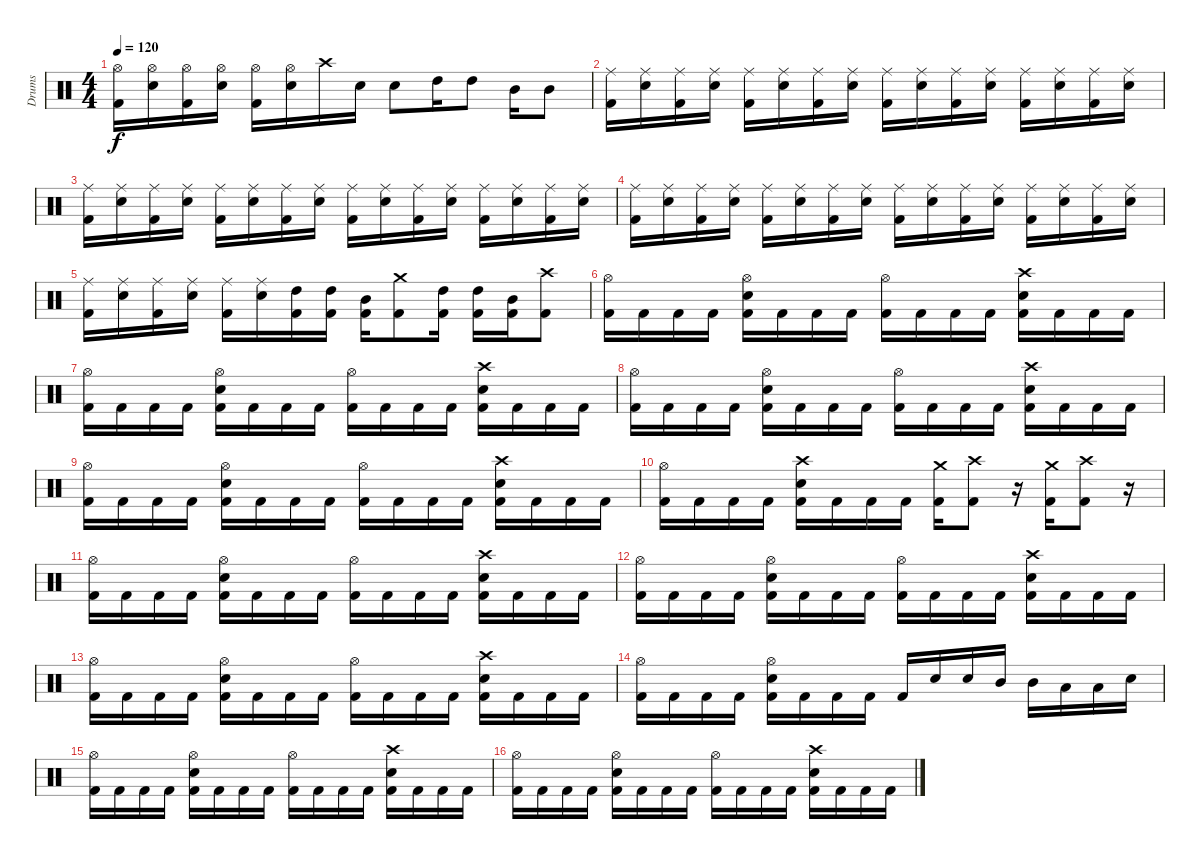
\track ("Drums" "Drums") {instrument percussion}
\staff {score}
\articulation defaults
\ts (4 4)
\tempo 120
\clef neutral
\ks c
("Hi-Hat (open)" "Kick (hit) 2").16{dy f} ("Hi-Hat (open)" "Electric Snare (hit)").16 ("Hi-Hat (open)" "Kick (hit) 2").16 ("Hi-Hat (open)" "Electric Snare (hit)").16 ("Hi-Hat (open)" "Kick (hit) 2").16 ("Hi-Hat (open)" "Electric Snare (hit)").16 "Crash high (hit)".16 "Electric Snare (hit)".16 "Electric Snare (hit)".8 "High Tom (hit)".16 "High Tom (hit)".8 "Mid Tom (hit)".16 "Mid Tom (hit)".8 |
("Ride (middle)" "Kick (hit) 2").16 ("Ride (middle)" "Electric Snare (hit)").16 ("Ride (middle)" "Kick (hit) 2").16 ("Ride (middle)" "Electric Snare (hit)").16 ("Ride (middle)" "Kick (hit) 2").16 ("Ride (middle)" "Electric Snare (hit)").16 ("Ride (middle)" "Kick (hit) 2").16 ("Ride (middle)" "Electric Snare (hit)").16 ("Ride (middle)" "Kick (hit) 2").16 ("Ride (middle)" "Electric Snare (hit)").16 ("Ride (middle)" "Kick (hit) 2").16 ("Ride (middle)" "Electric Snare (hit)").16 ("Ride (middle)" "Kick (hit) 2").16 ("Ride (middle)" "Electric Snare (hit)").16 ("Ride (middle)" "Kick (hit) 2").16 ("Ride (middle)" "Electric Snare (hit)").16 |
("Ride (middle)" "Kick (hit) 2").16 ("Ride (middle)" "Electric Snare (hit)").16 ("Ride (middle)" "Kick (hit) 2").16 ("Ride (middle)" "Electric Snare (hit)").16 ("Ride (middle)" "Kick (hit) 2").16 ("Ride (middle)" "Electric Snare (hit)").16 ("Ride (middle)" "Kick (hit) 2").16 ("Ride (middle)" "Electric Snare (hit)").16 ("Ride (middle)" "Kick (hit) 2").16 ("Ride (middle)" "Electric Snare (hit)").16 ("Ride (middle)" "Kick (hit) 2").16 ("Ride (middle)" "Electric Snare (hit)").16 ("Ride (middle)" "Kick (hit) 2").16 ("Ride (middle)" "Electric Snare (hit)").16 ("Ride (middle)" "Kick (hit) 2").16 ("Ride (middle)" "Electric Snare (hit)").16 |
("Ride (middle)" "Kick (hit) 2").16 ("Ride (middle)" "Electric Snare (hit)").16 ("Ride (middle)" "Kick (hit) 2").16 ("Ride (middle)" "Electric Snare (hit)").16 ("Ride (middle)" "Kick (hit) 2").16 ("Ride (middle)" "Electric Snare (hit)").16 ("Ride (middle)" "Kick (hit) 2").16 ("Ride (middle)" "Electric Snare (hit)").16 ("Ride (middle)" "Kick (hit) 2").16 ("Ride (middle)" "Electric Snare (hit)").16 ("Ride (middle)" "Kick (hit) 2").16 ("Ride (middle)" "Electric Snare (hit)").16 ("Ride (middle)" "Kick (hit) 2").16 ("Ride (middle)" "Electric Snare (hit)").16 ("Ride (middle)" "Kick (hit) 2").16 ("Ride (middle)" "Electric Snare (hit)").16 |
("Ride (middle)" "Kick (hit) 2").16 ("Ride (middle)" "Electric Snare (hit)").16 ("Ride (middle)" "Kick (hit) 2").16 ("Ride (middle)" "Electric Snare (hit)").16 ("Ride (middle)" "Kick (hit) 2").16 ("Ride (middle)" "Electric Snare (hit)").16 ("High Tom (hit)" "Kick (hit) 2").16 ("High Tom (hit)" "Kick (hit) 2").16 ("Mid Tom (hit)" "Kick (hit) 2").16 ("Crash medium (hit)" "Kick (hit) 2").8 ("High Tom (hit)" "Kick (hit) 2").16 ("High Tom (hit)" "Kick (hit) 2").16 ("Mid Tom (hit)" "Kick (hit) 2").16 ("Crash high (hit)" "Kick (hit) 2").8 |
("Hi-Hat (open)" "Kick (hit) 2").16 "Kick (hit) 2".16 "Kick (hit) 2".16 "Kick (hit) 2".16 ("Hi-Hat (open)" "Electric Snare (hit)" "Kick (hit) 2").16 "Kick (hit) 2".16 "Kick (hit) 2".16 "Kick (hit) 2".16 ("Hi-Hat (open)" "Kick (hit) 2").16 "Kick (hit) 2".16 "Kick (hit) 2".16 "Kick (hit) 2".16 ("Crash high (hit)" "Electric Snare (hit)" "Kick (hit) 2").16 "Kick (hit) 2".16 "Kick (hit) 2".16 "Kick (hit) 2".16 |
("Hi-Hat (open)" "Kick (hit) 2").16 "Kick (hit) 2".16 "Kick (hit) 2".16 "Kick (hit) 2".16 ("Hi-Hat (open)" "Electric Snare (hit)" "Kick (hit) 2").16 "Kick (hit) 2".16 "Kick (hit) 2".16 "Kick (hit) 2".16 ("Hi-Hat (open)" "Kick (hit) 2").16 "Kick (hit) 2".16 "Kick (hit) 2".16 "Kick (hit) 2".16 ("Crash high (hit)" "Electric Snare (hit)" "Kick (hit) 2").16 "Kick (hit) 2".16 "Kick (hit) 2".16 "Kick (hit) 2".16 |
("Hi-Hat (open)" "Kick (hit) 2").16 "Kick (hit) 2".16 "Kick (hit) 2".16 "Kick (hit) 2".16 ("Hi-Hat (open)" "Electric Snare (hit)" "Kick (hit) 2").16 "Kick (hit) 2".16 "Kick (hit) 2".16 "Kick (hit) 2".16 ("Hi-Hat (open)" "Kick (hit) 2").16 "Kick (hit) 2".16 "Kick (hit) 2".16 "Kick (hit) 2".16 ("Crash high (hit)" "Electric Snare (hit)" "Kick (hit) 2").16 "Kick (hit) 2".16 "Kick (hit) 2".16 "Kick (hit) 2".16 |
("Hi-Hat (open)" "Kick (hit) 2").16 "Kick (hit) 2".16 "Kick (hit) 2".16 "Kick (hit) 2".16 ("Hi-Hat (open)" "Electric Snare (hit)" "Kick (hit) 2").16 "Kick (hit) 2".16 "Kick (hit) 2".16 "Kick (hit) 2".16 ("Hi-Hat (open)" "Kick (hit) 2").16 "Kick (hit) 2".16 "Kick (hit) 2".16 "Kick (hit) 2".16 ("Crash high (hit)" "Electric Snare (hit)" "Kick (hit) 2").16 "Kick (hit) 2".16 "Kick (hit) 2".16 "Kick (hit) 2".16 |
("Hi-Hat (open)" "Kick (hit) 2").16 "Kick (hit) 2".16 "Kick (hit) 2".16 "Kick (hit) 2".16 ("Crash high (hit)" "Electric Snare (hit)" "Kick (hit) 2").16 "Kick (hit) 2".16 "Kick (hit) 2".16 "Kick (hit) 2".16 ("Crash medium (hit)" "Kick (hit) 2").16 ("Crash high (hit)" "Kick (hit) 2").8 r.16 ("Crash medium (hit)" "Kick (hit) 2").16 ("Crash high (hit)" "Kick (hit) 2").8 r.16 |
("Hi-Hat (open)" "Kick (hit) 2").16 "Kick (hit) 2".16 "Kick (hit) 2".16 "Kick (hit) 2".16 ("Hi-Hat (open)" "Electric Snare (hit)" "Kick (hit) 2").16 "Kick (hit) 2".16 "Kick (hit) 2".16 "Kick (hit) 2".16 ("Hi-Hat (open)" "Kick (hit) 2").16 "Kick (hit) 2".16 "Kick (hit) 2".16 "Kick (hit) 2".16 ("Crash high (hit)" "Electric Snare (hit)" "Kick (hit) 2").16 "Kick (hit) 2".16 "Kick (hit) 2".16 "Kick (hit) 2".16 |
("Hi-Hat (open)" "Kick (hit) 2").16 "Kick (hit) 2".16 "Kick (hit) 2".16 "Kick (hit) 2".16 ("Hi-Hat (open)" "Electric Snare (hit)" "Kick (hit) 2").16 "Kick (hit) 2".16 "Kick (hit) 2".16 "Kick (hit) 2".16 ("Hi-Hat (open)" "Kick (hit) 2").16 "Kick (hit) 2".16 "Kick (hit) 2".16 "Kick (hit) 2".16 ("Crash high (hit)" "Electric Snare (hit)" "Kick (hit) 2").16 "Kick (hit) 2".16 "Kick (hit) 2".16 "Kick (hit) 2".16 |
("Hi-Hat (open)" "Kick (hit) 2").16 "Kick (hit) 2".16 "Kick (hit) 2".16 "Kick (hit) 2".16 ("Hi-Hat (open)" "Electric Snare (hit)" "Kick (hit) 2").16 "Kick (hit) 2".16 "Kick (hit) 2".16 "Kick (hit) 2".16 ("Hi-Hat (open)" "Kick (hit) 2").16 "Kick (hit) 2".16 "Kick (hit) 2".16 "Kick (hit) 2".16 ("Crash high (hit)" "Electric Snare (hit)" "Kick (hit) 2").16 "Kick (hit) 2".16 "Kick (hit) 2".16 "Kick (hit) 2".16 |
("Hi-Hat (open)" "Kick (hit) 2").16 "Kick (hit) 2".16 "Kick (hit) 2".16 "Kick (hit) 2".16 ("Hi-Hat (open)" "Electric Snare (hit)" "Kick (hit) 2").16 "Kick (hit) 2".16 "Kick (hit) 2".16 "Kick (hit) 2".16 "Kick (hit) 2".16 "Electric Snare (hit)".16 "Electric Snare (hit)".16 "Mid Tom (hit)".16 "Mid Tom (hit)".16 "Low Tom (hit)".16 "Low Tom (hit)".16 "Electric Snare (hit)".16 |
("Hi-Hat (open)" "Kick (hit) 2").16 "Kick (hit) 2".16 "Kick (hit) 2".16 "Kick (hit) 2".16 ("Hi-Hat (open)" "Electric Snare (hit)" "Kick (hit) 2").16 "Kick (hit) 2".16 "Kick (hit) 2".16 "Kick (hit) 2".16 ("Hi-Hat (open)" "Kick (hit) 2").16 "Kick (hit) 2".16 "Kick (hit) 2".16 "Kick (hit) 2".16 ("Crash high (hit)" "Electric Snare (hit)" "Kick (hit) 2").16 "Kick (hit) 2".16 "Kick (hit) 2".16 "Kick (hit) 2".16 |
("Hi-Hat (open)" "Kick (hit) 2").16 "Kick (hit) 2".16 "Kick (hit) 2".16 "Kick (hit) 2".16 ("Hi-Hat (open)" "Electric Snare (hit)" "Kick (hit) 2").16 "Kick (hit) 2".16 "Kick (hit) 2".16 "Kick (hit) 2".16 ("Hi-Hat (open)" "Kick (hit) 2").16 "Kick (hit) 2".16 "Kick (hit) 2".16 "Kick (hit) 2".16 ("Crash high (hit)" "Electric Snare (hit)" "Kick (hit) 2").16 "Kick (hit) 2".16 "Kick (hit) 2".16 "Kick (hit) 2".16
